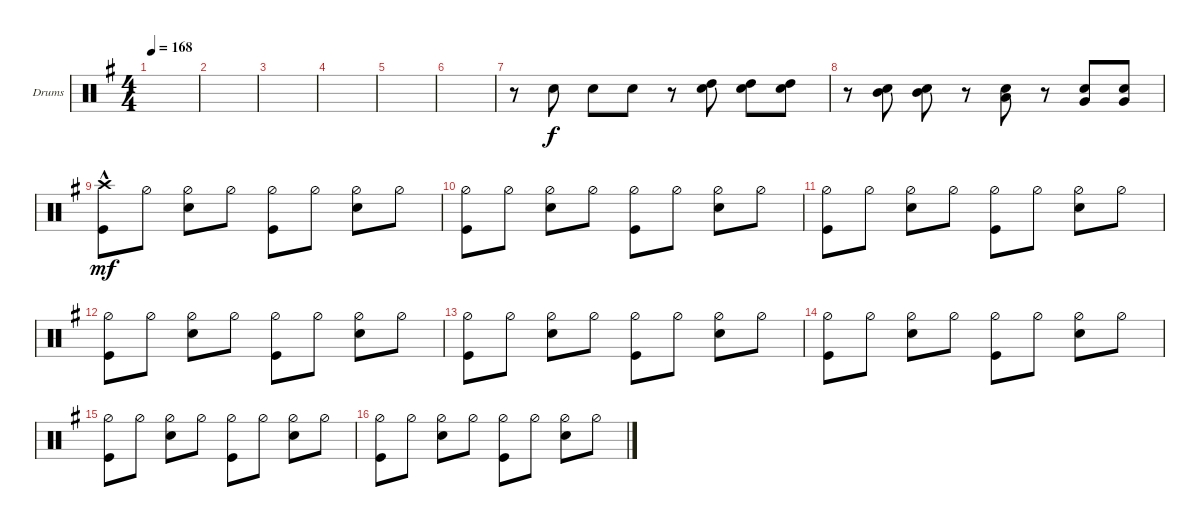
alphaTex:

\defaultSystemsLayout 4
\bracketExtendMode groupsimilarinstruments
\firstSystemTrackNameOrientation horizontal
\otherSystemsTrackNameOrientation horizontal
\track ("Drumkit" "Drums") {instrument percussion}
\staff {score}
\articulation defaults
\ts (4 4)
\tempo 168
\clef neutral
\ks eminor
|
|
|
|
|
|
r.8 "Snare (hit) 2".8 "Snare (hit) 2".8 "Snare (hit) 2".8 r.8 ("High Tom (hit)" "Snare (hit) 2").8 ("High Tom (hit)" "Snare (hit) 2").8 ("High Tom (hit)" "Snare (hit) 2").8 |
r.8 ("Mid Tom (hit)" "Snare (hit) 2").8 ("Mid Tom (hit)" "Snare (hit) 2").8 r.8 ("Low Tom (hit)" "Snare (hit) 2").8 r.8 ("Very Low Tom (hit)" "Snare (hit) 2").8 ("Very Low Tom (hit)" "Snare (hit) 2").8 |
("Kick (hit)" "Crash high (hit)"{hac}).8{dy mf} "Hi-Hat (half)".8 ("Hi-Hat (half)" "Snare (hit) 2").8 "Hi-Hat (half)".8 ("Hi-Hat (half)" "Kick (hit)").8 "Hi-Hat (half)".8 ("Hi-Hat (half)" "Snare (hit) 2").8 "Hi-Hat (half)".8 |
("Hi-Hat (half)" "Kick (hit)").8 "Hi-Hat (half)".8 ("Hi-Hat (half)" "Snare (hit) 2").8 "Hi-Hat (half)".8 ("Hi-Hat (half)" "Kick (hit)").8 "Hi-Hat (half)".8 ("Hi-Hat (half)" "Snare (hit) 2").8 "Hi-Hat (half)".8 |
("Hi-Hat (half)" "Kick (hit)").8 "Hi-Hat (half)".8 ("Hi-Hat (half)" "Snare (hit) 2").8 "Hi-Hat (half)".8 ("Hi-Hat (half)" "Kick (hit)").8 "Hi-Hat (half)".8 ("Hi-Hat (half)" "Snare (hit) 2").8 "Hi-Hat (half)".8 |
("Hi-Hat (half)" "Kick (hit)").8 "Hi-Hat (half)".8 ("Hi-Hat (half)" "Snare (hit) 2").8 "Hi-Hat (half)".8 ("Hi-Hat (half)" "Kick (hit)").8 "Hi-Hat (half)".8 ("Hi-Hat (half)" "Snare (hit) 2").8 "Hi-Hat (half)".8 |
("Hi-Hat (half)" "Kick (hit)").8 "Hi-Hat (half)".8 ("Hi-Hat (half)" "Snare (hit) 2").8 "Hi-Hat (half)".8 ("Hi-Hat (half)" "Kick (hit)").8 "Hi-Hat (half)".8 ("Hi-Hat (half)" "Snare (hit) 2").8 "Hi-Hat (half)".8 |
("Hi-Hat (half)" "Kick (hit)").8 "Hi-Hat (half)".8 ("Hi-Hat (half)" "Snare (hit) 2").8 "Hi-Hat (half)".8 ("Hi-Hat (half)" "Kick (hit)").8 "Hi-Hat (half)".8 ("Hi-Hat (half)" "Snare (hit) 2").8 "Hi-Hat (half)".8 |
("Hi-Hat (half)" "Kick (hit)").8 "Hi-Hat (half)".8 ("Hi-Hat (half)" "Snare (hit) 2").8 "Hi-Hat (half)".8 ("Hi-Hat (half)" "Kick (hit)").8 "Hi-Hat (half)".8 ("Hi-Hat (half)" "Snare (hit) 2").8 "Hi-Hat (half)".8 |
("Hi-Hat (half)" "Kick (hit)").8 "Hi-Hat (half)".8 ("Hi-Hat (half)" "Snare (hit) 2").8 "Hi-Hat (half)".8 ("Hi-Hat (half)" "Kick (hit)").8 "Hi-Hat (half)".8 ("Hi-Hat (half)" "Snare (hit) 2").8 "Hi-Hat (half)".8
